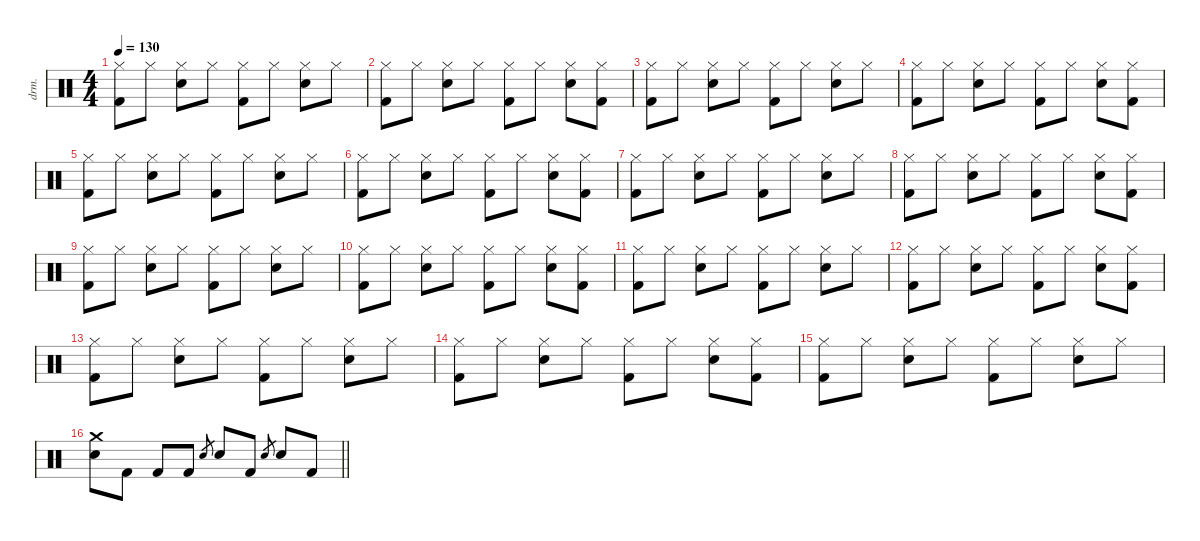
\defaultSystemsLayout 4
\hideDynamics
\bracketExtendMode nobrackets
\otherSystemsTrackNameOrientation horizontal
\track ("Lars Ulrich (Drums)" "drm.") {instrument percussion}
\staff {score}
\articulation defaults
\ts (4 4)
\tempo 130
\clef neutral
\ks c
("Kick (hit) 2" "Hi-Hat (closed)").8{dy f beam Down} "Hi-Hat (closed)".8{beam Down} ("Snare (hit) 2" "Hi-Hat (closed)").8{beam Down} "Hi-Hat (closed)".8{beam Down} ("Kick (hit) 2" "Hi-Hat (closed)").8{beam Down} "Hi-Hat (closed)".8{beam Down} ("Snare (hit) 2" "Hi-Hat (closed)").8{beam Down} "Hi-Hat (closed)".8{beam Down} |
("Kick (hit) 2" "Hi-Hat (closed)").8{beam Down} "Hi-Hat (closed)".8{beam Down} ("Snare (hit) 2" "Hi-Hat (closed)").8{beam Down} "Hi-Hat (closed)".8{beam Down} ("Kick (hit) 2" "Hi-Hat (closed)").8{beam Down} "Hi-Hat (closed)".8{beam Down} ("Snare (hit) 2" "Hi-Hat (closed)").8{beam Down} ("Kick (hit) 2" "Hi-Hat (closed)").8{beam Down} |
("Kick (hit) 2" "Hi-Hat (closed)").8{beam Down} "Hi-Hat (closed)".8{beam Down} ("Snare (hit) 2" "Hi-Hat (closed)").8{beam Down} "Hi-Hat (closed)".8{beam Down} ("Kick (hit) 2" "Hi-Hat (closed)").8{beam Down} "Hi-Hat (closed)".8{beam Down} ("Snare (hit) 2" "Hi-Hat (closed)").8{beam Down} "Hi-Hat (closed)".8{beam Down} |
("Kick (hit) 2" "Hi-Hat (closed)").8{beam Down} "Hi-Hat (closed)".8{beam Down} ("Snare (hit) 2" "Hi-Hat (closed)").8{beam Down} "Hi-Hat (closed)".8{beam Down} ("Kick (hit) 2" "Hi-Hat (closed)").8{beam Down} "Hi-Hat (closed)".8{beam Down} ("Snare (hit) 2" "Hi-Hat (closed)").8{beam Down} ("Kick (hit) 2" "Hi-Hat (closed)").8{beam Down} |
("Kick (hit) 2" "Hi-Hat (closed)").8{beam Down} "Hi-Hat (closed)".8{beam Down} ("Snare (hit) 2" "Hi-Hat (closed)").8{beam Down} "Hi-Hat (closed)".8{beam Down} ("Kick (hit) 2" "Hi-Hat (closed)").8{beam Down} "Hi-Hat (closed)".8{beam Down} ("Snare (hit) 2" "Hi-Hat (closed)").8{beam Down} "Hi-Hat (closed)".8{beam Down} |
("Kick (hit) 2" "Hi-Hat (closed)").8{beam Down} "Hi-Hat (closed)".8{beam Down} ("Snare (hit) 2" "Hi-Hat (closed)").8{beam Down} "Hi-Hat (closed)".8{beam Down} ("Kick (hit) 2" "Hi-Hat (closed)").8{beam Down} "Hi-Hat (closed)".8{beam Down} ("Snare (hit) 2" "Hi-Hat (closed)").8{beam Down} ("Kick (hit) 2" "Hi-Hat (closed)").8{beam Down} |
("Kick (hit) 2" "Hi-Hat (closed)").8{beam Down} "Hi-Hat (closed)".8{beam Down} ("Snare (hit) 2" "Hi-Hat (closed)").8{beam Down} "Hi-Hat (closed)".8{beam Down} ("Kick (hit) 2" "Hi-Hat (closed)").8{beam Down} "Hi-Hat (closed)".8{beam Down} ("Snare (hit) 2" "Hi-Hat (closed)").8{beam Down} "Hi-Hat (closed)".8{beam Down} |
("Kick (hit) 2" "Hi-Hat (closed)").8{beam Down} "Hi-Hat (closed)".8{beam Down} ("Snare (hit) 2" "Hi-Hat (closed)").8{beam Down} "Hi-Hat (closed)".8{beam Down} ("Kick (hit) 2" "Hi-Hat (closed)").8{beam Down} "Hi-Hat (closed)".8{beam Down} ("Snare (hit) 2" "Hi-Hat (closed)").8{beam Down} ("Kick (hit) 2" "Hi-Hat (closed)").8{beam Down} |
("Kick (hit) 2" "Hi-Hat (closed)").8{beam Down} "Hi-Hat (closed)".8{beam Down} ("Snare (hit) 2" "Hi-Hat (closed)").8{beam Down} "Hi-Hat (closed)".8{beam Down} ("Kick (hit) 2" "Hi-Hat (closed)").8{beam Down} "Hi-Hat (closed)".8{beam Down} ("Snare (hit) 2" "Hi-Hat (closed)").8{beam Down} "Hi-Hat (closed)".8{beam Down} |
("Kick (hit) 2" "Hi-Hat (closed)").8{beam Down} "Hi-Hat (closed)".8{beam Down} ("Snare (hit) 2" "Hi-Hat (closed)").8{beam Down} "Hi-Hat (closed)".8{beam Down} ("Kick (hit) 2" "Hi-Hat (closed)").8{beam Down} "Hi-Hat (closed)".8{beam Down} ("Snare (hit) 2" "Hi-Hat (closed)").8{beam Down} ("Kick (hit) 2" "Hi-Hat (closed)").8{beam Down} |
("Kick (hit) 2" "Hi-Hat (closed)").8{beam Down} "Hi-Hat (closed)".8{beam Down} ("Snare (hit) 2" "Hi-Hat (closed)").8{beam Down} "Hi-Hat (closed)".8{beam Down} ("Kick (hit) 2" "Hi-Hat (closed)").8{beam Down} "Hi-Hat (closed)".8{beam Down} ("Snare (hit) 2" "Hi-Hat (closed)").8{beam Down} "Hi-Hat (closed)".8{beam Down} |
("Kick (hit) 2" "Hi-Hat (closed)").8{beam Down} "Hi-Hat (closed)".8{beam Down} ("Snare (hit) 2" "Hi-Hat (closed)").8{beam Down} "Hi-Hat (closed)".8{beam Down} ("Kick (hit) 2" "Hi-Hat (closed)").8{beam Down} "Hi-Hat (closed)".8{beam Down} ("Snare (hit) 2" "Hi-Hat (closed)").8{beam Down} ("Kick (hit) 2" "Hi-Hat (closed)").8{beam Down} |
("Kick (hit) 2" "Hi-Hat (closed)").8{beam Down} "Hi-Hat (closed)".8{beam Down} ("Snare (hit) 2" "Hi-Hat (closed)").8{beam Down} "Hi-Hat (closed)".8{beam Down} ("Kick (hit) 2" "Hi-Hat (closed)").8{beam Down} "Hi-Hat (closed)".8{beam Down} ("Snare (hit) 2" "Hi-Hat (closed)").8{beam Down} "Hi-Hat (closed)".8{beam Down} |
("Kick (hit) 2" "Hi-Hat (closed)").8{beam Down} "Hi-Hat (closed)".8{beam Down} ("Snare (hit) 2" "Hi-Hat (closed)").8{beam Down} "Hi-Hat (closed)".8{beam Down} ("Kick (hit) 2" "Hi-Hat (closed)").8{beam Down} "Hi-Hat (closed)".8{beam Down} ("Snare (hit) 2" "Hi-Hat (closed)").8{beam Down} ("Kick (hit) 2" "Hi-Hat (closed)").8{beam Down} |
("Kick (hit) 2" "Hi-Hat (closed)").8{beam Down} "Hi-Hat (closed)".8{beam Down} ("Snare (hit) 2" "Hi-Hat (closed)").8{beam Down} "Hi-Hat (closed)".8{beam Down} ("Kick (hit) 2" "Hi-Hat (closed)").8{beam Down} "Hi-Hat (closed)".8{beam Down} ("Snare (hit) 2" "Hi-Hat (closed)").8{beam Down} "Hi-Hat (closed)".8{beam Down} |
\barLineRight lightlight
("Snare (hit) 2" "Crash medium (hit)").8{beam Down} "Kick (hit) 2".8{beam Down} "Kick (hit) 2".8{beam Up} "Kick (hit) 2".8{beam Up} "Snare (hit) 2".8{gr dy mf beam Up} "Snare (hit) 2".8{dy f beam Up} "Kick (hit) 2".8{beam Up} "Snare (hit) 2".8{gr dy mf beam Up} "Snare (hit) 2".8{dy f beam Up} "Kick (hit) 2".8{beam Up}
